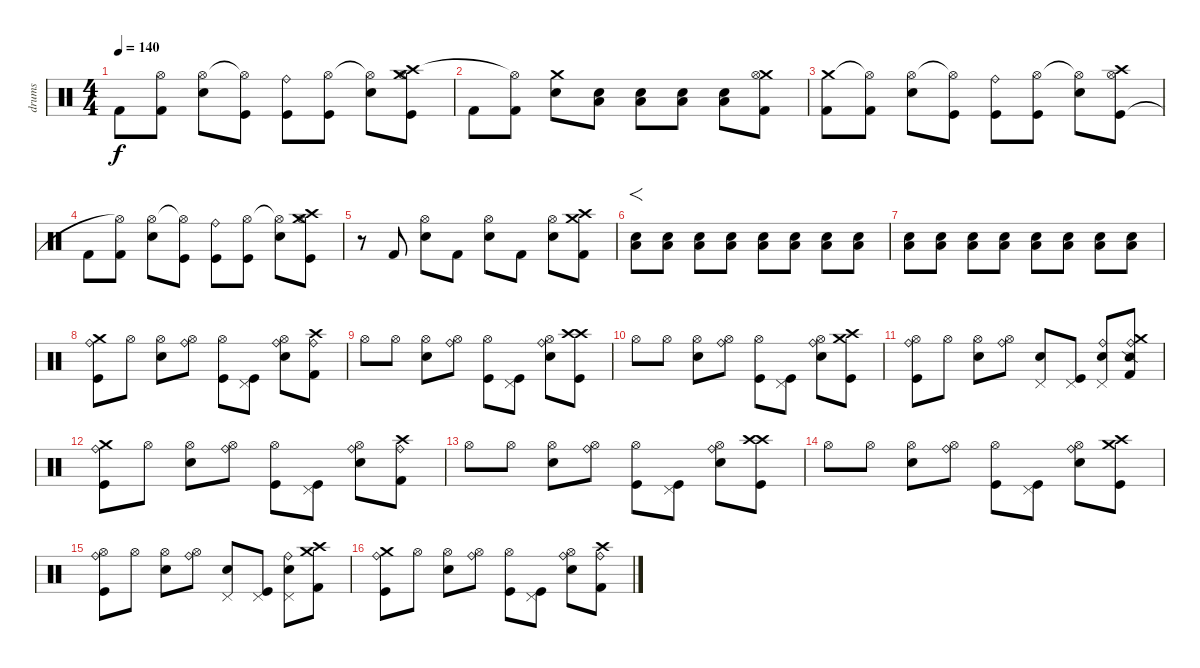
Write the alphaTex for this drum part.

\track ("drums" "drums") {instrument percussion}
\staff {score}
\articulation defaults
\ts (4 4)
\tempo 140
\clef neutral
\ks c "Kick (hit) 2".8{dy f}
("Kick (hit) 2" "Hi-Hat (open)"{t}).8 ("Snare (hit) 2" "Hi-Hat (open)").8 ("Kick (hit)" "Hi-Hat (open)"{t}).8 ("Kick (hit)" "Ride (bell)").8 ("Kick (hit)" "Hi-Hat (open)").8 ("Snare (hit) 2" "Hi-Hat (open)"{t}).8 ("Crash medium (hit)" "Crash high (hit)" "Kick (hit)" "Hi-Hat (open)").8 |
"Kick (hit) 2".8 ("Kick (hit) 2" "Hi-Hat (open)"{t}).8 ("Snare (hit) 2" "Crash medium (hit)").8 ("Snare (hit) 2" "Low Floor Tom (hit)").8 ("Snare (hit) 2" "Low Floor Tom (hit)").8 ("Snare (hit) 2" "Low Floor Tom (hit)").8 ("Snare (hit) 2" "Low Floor Tom (hit)").8 ("Crash medium (hit)" "Kick (hit) 2" "Hi-Hat (open)").8 |
("Kick (hit) 2" "Crash medium (hit)").8 ("Kick (hit) 2" "Hi-Hat (open)"{t}).8 ("Snare (hit) 2" "Hi-Hat (open)").8 ("Kick (hit)" "Hi-Hat (open)"{t}).8 ("Kick (hit)" "Ride (bell)").8 ("Kick (hit)" "Hi-Hat (open)").8 ("Snare (hit) 2" "Hi-Hat (open)"{t}).8 ("Crash high (hit)" "Kick (hit)" "Hi-Hat (open)").8 |
"Kick (hit) 2".8 ("Kick (hit) 2" "Hi-Hat (open)"{t}).8 ("Snare (hit) 2" "Hi-Hat (open)").8 ("Kick (hit)" "Hi-Hat (open)"{t}).8 ("Kick (hit)" "Ride (bell)").8 ("Kick (hit)" "Hi-Hat (open)").8 ("Snare (hit) 2" "Hi-Hat (open)"{t}).8 ("Crash medium (hit)" "Crash high (hit)" "Kick (hit)" "Hi-Hat (open)").8 |
r.8 "Kick (hit) 2".8 ("Hi-Hat (open)" "Snare (hit) 2").8 "Kick (hit) 2".8 ("Hi-Hat (open)" "Snare (hit) 2").8 "Kick (hit) 2".8 ("Hi-Hat (open)" "Snare (hit) 2").8 ("Crash high (hit)" "Crash medium (hit)" "Kick (hit) 2").8 |
("Snare (hit) 2" "Low Floor Tom (hit)").8{f volume 8} ("Snare (hit) 2" "Low Floor Tom (hit)").8 ("Snare (hit) 2" "Low Floor Tom (hit)").8 ("Snare (hit) 2" "Low Floor Tom (hit)").8{volume 10} ("Snare (hit) 2" "Low Floor Tom (hit)").8 ("Snare (hit) 2" "Low Floor Tom (hit)").8 ("Snare (hit) 2" "Low Floor Tom (hit)").8 ("Snare (hit) 2" "Low Floor Tom (hit)").8 |
("Snare (hit) 2" "Low Floor Tom (hit)").8 ("Snare (hit) 2" "Low Floor Tom (hit)").8 ("Snare (hit) 2" "Low Floor Tom (hit)").8 ("Snare (hit) 2" "Low Floor Tom (hit)").8{volume 12} ("Snare (hit) 2" "Low Floor Tom (hit)").8 ("Snare (hit) 2" "Low Floor Tom (hit)").8 ("Snare (hit) 2" "Low Floor Tom (hit)").8 ("Snare (hit) 2" "Low Floor Tom (hit)").8 |
("Ride (bell)" "Kick (hit)" "Crash medium (hit)").8 "Hi-Hat (open)".8 ("Hi-Hat (open)" "Snare (hit) 2").8 ("Ride (bell)" "Hi-Hat (open)").8 ("Hi-Hat (open)" "Kick (hit)").8 ("Pedal Hi-Hat (hit)" "Kick (hit)").8 ("Ride (bell)" "Hi-Hat (open)" "Snare (hit) 2").8 ("Ride (bell)" "Kick (hit) 2" "Crash high (hit)").8 |
"Hi-Hat (open)".8 "Hi-Hat (open)".8 ("Hi-Hat (open)" "Snare (hit) 2").8 ("Ride (bell)" "Hi-Hat (open)").8 ("Hi-Hat (open)" "Kick (hit)").8 ("Pedal Hi-Hat (hit)" "Kick (hit)").8 ("Ride (bell)" "Hi-Hat (open)" "Snare (hit) 2").8 ("Kick (hit)" "Crash high (hit)" "Crash high (hit)").8 |
"Hi-Hat (open)".8 "Hi-Hat (open)".8 ("Hi-Hat (open)" "Snare (hit) 2").8 ("Ride (bell)" "Hi-Hat (open)").8 ("Hi-Hat (open)" "Kick (hit)").8 ("Pedal Hi-Hat (hit)" "Kick (hit)").8 ("Ride (bell)" "Hi-Hat (open)" "Snare (hit) 2").8 ("Kick (hit)" "Crash medium (hit)" "Crash high (hit)").8 |
("Ride (bell)" "Kick (hit)" "Hi-Hat (open)").8 "Hi-Hat (open)".8 ("Snare (hit) 2" "Hi-Hat (open)").8 ("Ride (bell)" "Hi-Hat (open)").8 ("Snare (hit) 2" "Pedal Hi-Hat (hit)").8 ("Kick (hit)" "Pedal Hi-Hat (hit)").8 ("Ride (bell)" "Snare (hit) 2" "Pedal Hi-Hat (hit)").8 ("Snare (side stick) 2" "Ride (bell)" "Kick (hit) 2" "Crash medium (hit)").8 |
("Ride (bell)" "Kick (hit)" "Crash medium (hit)").8 "Hi-Hat (open)".8 ("Hi-Hat (open)" "Snare (hit) 2").8 ("Ride (bell)" "Hi-Hat (open)").8 ("Hi-Hat (open)" "Kick (hit)").8 ("Pedal Hi-Hat (hit)" "Kick (hit)").8 ("Ride (bell)" "Hi-Hat (open)" "Snare (hit) 2").8 ("Ride (bell)" "Kick (hit) 2" "Crash high (hit)").8 |
"Hi-Hat (open)".8 "Hi-Hat (open)".8 ("Hi-Hat (open)" "Snare (hit) 2").8 ("Ride (bell)" "Hi-Hat (open)").8 ("Hi-Hat (open)" "Kick (hit)").8 ("Pedal Hi-Hat (hit)" "Kick (hit)").8 ("Ride (bell)" "Hi-Hat (open)" "Snare (hit) 2").8 ("Kick (hit)" "Crash high (hit)" "Crash high (hit)").8 |
"Hi-Hat (open)".8 "Hi-Hat (open)".8 ("Hi-Hat (open)" "Snare (hit) 2").8 ("Ride (bell)" "Hi-Hat (open)").8 ("Hi-Hat (open)" "Kick (hit)").8 ("Pedal Hi-Hat (hit)" "Kick (hit)").8 ("Ride (bell)" "Hi-Hat (open)" "Snare (hit) 2").8 ("Kick (hit)" "Crash medium (hit)" "Crash high (hit)").8 |
("Ride (bell)" "Kick (hit)" "Hi-Hat (open)").8 "Hi-Hat (open)".8 ("Snare (hit) 2" "Hi-Hat (open)").8 ("Ride (bell)" "Hi-Hat (open)").8 ("Snare (hit) 2" "Pedal Hi-Hat (hit)").8 ("Kick (hit)" "Pedal Hi-Hat (hit)").8 ("Ride (bell)" "Snare (hit) 2" "Pedal Hi-Hat (hit)").8 ("Crash high (hit)" "Kick (hit) 2" "Crash medium (hit)").8 |
("Ride (bell)" "Kick (hit)" "Crash medium (hit)").8 "Hi-Hat (open)".8 ("Hi-Hat (open)" "Snare (hit) 2").8 ("Ride (bell)" "Hi-Hat (open)").8 ("Hi-Hat (open)" "Kick (hit)").8 ("Pedal Hi-Hat (hit)" "Kick (hit)").8 ("Ride (bell)" "Hi-Hat (open)" "Snare (hit) 2").8 ("Ride (bell)" "Kick (hit) 2" "Crash high (hit)").8
